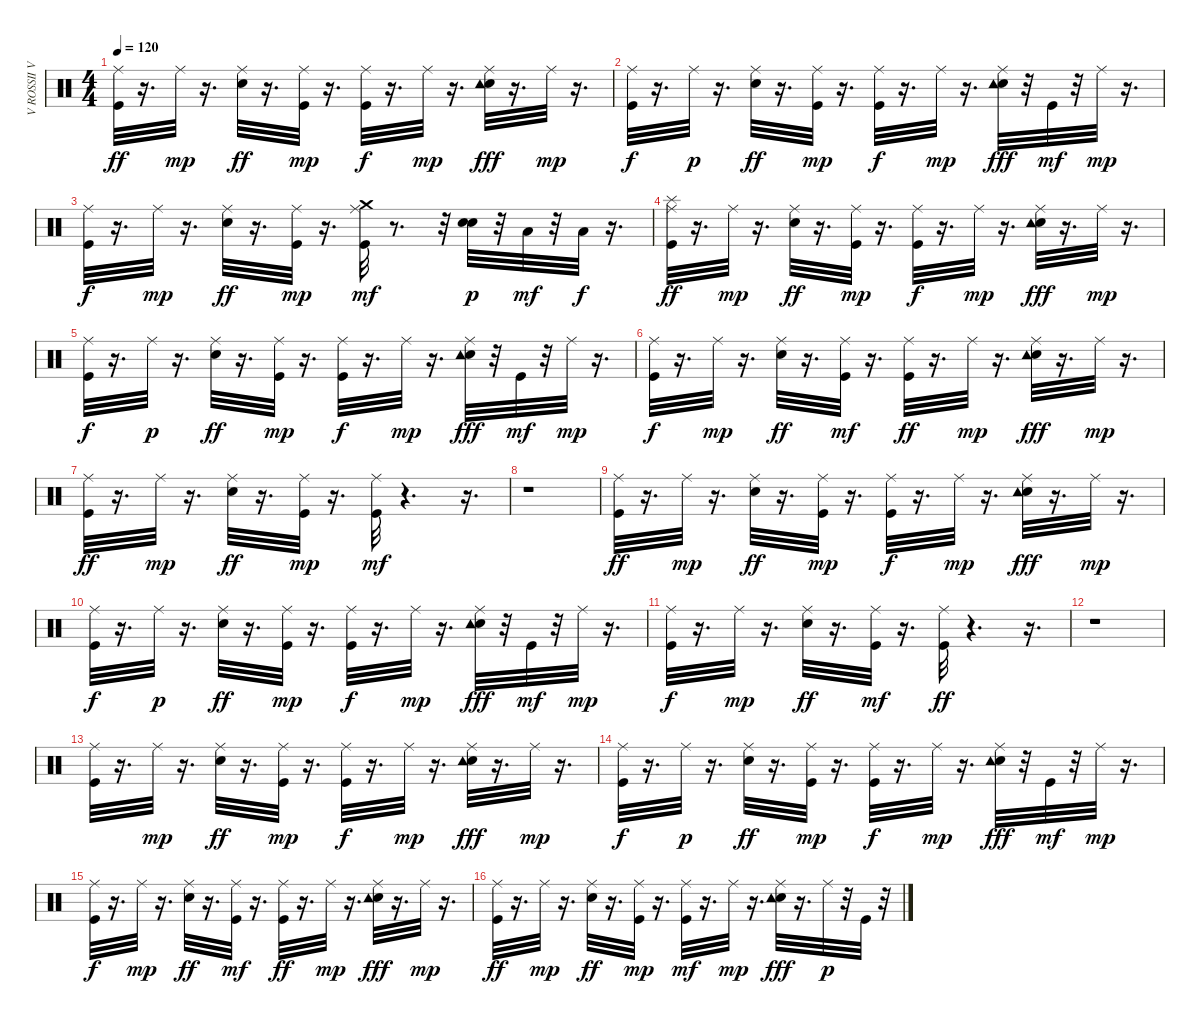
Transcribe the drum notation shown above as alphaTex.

\track ("V ROSSII VECHERA     " "V ROSSII V") {instrument percussion}
\staff {score}
\articulation defaults
\ts (4 4)
\tempo 120
\clef neutral
\ks c
("Ride (middle)" "Kick (hit)").32{dy ff} r.16{d} "Ride (middle)".32{dy mp} r.16{d} ("Snare (hit) 2" "Ride (middle)").32{dy ff} r.16{d} ("Kick (hit)" "Ride (middle)").32{dy mp} r.16{d} ("Kick (hit)" "Ride (middle)").32{dy f} r.16{d} "Ride (middle)".32{dy mp} r.16{d} ("Snare (hit) 2" "Ride (middle)" "Tambourine (hit)").32{dy fff} r.16{d} "Ride (middle)".32{dy mp} r.16{d} |
("Ride (middle)" "Kick (hit)").32{dy f} r.16{d} "Ride (middle)".32{dy p} r.16{d} ("Snare (hit) 2" "Ride (middle)").32{dy ff} r.16{d} ("Ride (middle)" "Kick (hit)").32{dy mp} r.16{d} ("Ride (middle)" "Kick (hit)").32{dy f} r.16{d} "Ride (middle)".32{dy mp} r.16{d} ("Snare (hit) 2" "Ride (middle)" "Tambourine (hit)").32{dy fff} r.32 "Kick (hit)".32{dy mf} r.32 "Ride (middle)".32{dy mp} r.16{d} |
("Kick (hit)" "Ride (middle)").32{dy f} r.16{d} "Ride (middle)".32{dy mp} r.16{d} ("Snare (hit) 2" "Ride (middle)").32{dy ff} r.16{d} ("Kick (hit)" "Ride (middle)").32{dy mp} r.16{d} ("Crash medium (hit)" "Kick (hit)" "Ride (middle)").32{dy mf} r.8{d} r.32 ("Snare (hit) 2" "Snare (hit) 2").32{dy p} r.32 "Low Tom (hit)".32{dy mf} r.32 "Low Floor Tom (hit)".32{dy f} r.16{d} |
("Splash (hit)" "Ride (middle)" "Kick (hit)").32{dy ff} r.16{d} "Ride (middle)".32{dy mp} r.16{d} ("Snare (hit) 2" "Ride (middle)").32{dy ff} r.16{d} ("Kick (hit)" "Ride (middle)").32{dy mp} r.16{d} ("Kick (hit)" "Ride (middle)").32{dy f} r.16{d} "Ride (middle)".32{dy mp} r.16{d} ("Snare (hit) 2" "Ride (middle)" "Tambourine (hit)").32{dy fff} r.16{d} "Ride (middle)".32{dy mp} r.16{d} |
("Ride (middle)" "Kick (hit)").32{dy f} r.16{d} "Ride (middle)".32{dy p} r.16{d} ("Snare (hit) 2" "Ride (middle)").32{dy ff} r.16{d} ("Ride (middle)" "Kick (hit)").32{dy mp} r.16{d} ("Ride (middle)" "Kick (hit)").32{dy f} r.16{d} "Ride (middle)".32{dy mp} r.16{d} ("Snare (hit) 2" "Ride (middle)" "Tambourine (hit)").32{dy fff} r.32 "Kick (hit)".32{dy mf} r.32 "Ride (middle)".32{dy mp} r.16{d} |
("Kick (hit)" "Ride (middle)").32{dy f} r.16{d} "Ride (middle)".32{dy mp} r.16{d} ("Snare (hit) 2" "Ride (middle)").32{dy ff} r.16{d} ("Ride (middle)" "Kick (hit)").32{dy mf} r.16{d} ("Ride (middle)" "Kick (hit)").32{dy ff} r.16{d} "Ride (middle)".32{dy mp} r.16{d} ("Snare (hit) 2" "Ride (middle)" "Tambourine (hit)").32{dy fff} r.16{d} "Ride (middle)".32{dy mp} r.16{d} |
("Kick (hit)" "Ride (middle)").32{dy ff} r.16{d} "Ride (middle)".32{dy mp} r.16{d} ("Snare (hit) 2" "Ride (middle)").32{dy ff} r.16{d} ("Kick (hit)" "Ride (middle)").32{dy mp} r.16{d} ("Kick (hit)" "Ride (middle)").32{dy mf} r.4{d} r.16{d} |
r.1 |
("Ride (middle)" "Kick (hit)").32{dy ff} r.16{d} "Ride (middle)".32{dy mp} r.16{d} ("Snare (hit) 2" "Ride (middle)").32{dy ff} r.16{d} ("Kick (hit)" "Ride (middle)").32{dy mp} r.16{d} ("Kick (hit)" "Ride (middle)").32{dy f} r.16{d} "Ride (middle)".32{dy mp} r.16{d} ("Snare (hit) 2" "Ride (middle)" "Tambourine (hit)").32{dy fff} r.16{d} "Ride (middle)".32{dy mp} r.16{d} |
("Ride (middle)" "Kick (hit)").32{dy f} r.16{d} "Ride (middle)".32{dy p} r.16{d} ("Snare (hit) 2" "Ride (middle)").32{dy ff} r.16{d} ("Ride (middle)" "Kick (hit)").32{dy mp} r.16{d} ("Ride (middle)" "Kick (hit)").32{dy f} r.16{d} "Ride (middle)".32{dy mp} r.16{d} ("Snare (hit) 2" "Ride (middle)" "Tambourine (hit)").32{dy fff} r.32 "Kick (hit)".32{dy mf} r.32 "Ride (middle)".32{dy mp} r.16{d} |
("Kick (hit)" "Ride (middle)").32{dy f} r.16{d} "Ride (middle)".32{dy mp} r.16{d} ("Snare (hit) 2" "Ride (middle)").32{dy ff} r.16{d} ("Ride (middle)" "Kick (hit)").32{dy mf} r.16{d} ("Ride (middle)" "Kick (hit)").32{dy ff} r.4{d} r.16{d} |
r.1 |
("Ride (middle)" "Kick (hit)").32 r.16{d} "Ride (middle)".32{dy mp} r.16{d} ("Snare (hit) 2" "Ride (middle)").32{dy ff} r.16{d} ("Kick (hit)" "Ride (middle)").32{dy mp} r.16{d} ("Kick (hit)" "Ride (middle)").32{dy f} r.16{d} "Ride (middle)".32{dy mp} r.16{d} ("Snare (hit) 2" "Ride (middle)" "Tambourine (hit)").32{dy fff} r.16{d} "Ride (middle)".32{dy mp} r.16{d} |
("Ride (middle)" "Kick (hit)").32{dy f} r.16{d} "Ride (middle)".32{dy p} r.16{d} ("Snare (hit) 2" "Ride (middle)").32{dy ff} r.16{d} ("Ride (middle)" "Kick (hit)").32{dy mp} r.16{d} ("Ride (middle)" "Kick (hit)").32{dy f} r.16{d} "Ride (middle)".32{dy mp} r.16{d} ("Snare (hit) 2" "Ride (middle)" "Tambourine (hit)").32{dy fff} r.32 "Kick (hit)".32{dy mf} r.32 "Ride (middle)".32{dy mp} r.16{d} |
("Kick (hit)" "Ride (middle)").32{dy f} r.16{d} "Ride (middle)".32{dy mp} r.16{d} ("Snare (hit) 2" "Ride (middle)").32{dy ff} r.16{d} ("Ride (middle)" "Kick (hit)").32{dy mf} r.16{d} ("Ride (middle)" "Kick (hit)").32{dy ff} r.16{d} "Ride (middle)".32{dy mp} r.16{d} ("Snare (hit) 2" "Ride (middle)" "Tambourine (hit)").32{dy fff} r.16{d} "Ride (middle)".32{dy mp} r.16{d} |
("Kick (hit)" "Ride (middle)").32{dy ff} r.16{d} "Ride (middle)".32{dy mp} r.16{d} ("Snare (hit) 2" "Ride (middle)").32{dy ff} r.16{d} ("Kick (hit)" "Ride (middle)").32{dy mp} r.16{d} ("Kick (hit)" "Ride (middle)").32{dy mf} r.16{d} "Ride (middle)".32{dy mp} r.16{d} ("Snare (hit) 2" "Ride (middle)" "Tambourine (hit)").32{dy fff} r.16{d} "Ride (middle)".32{dy p} r.32 "Kick (hit)".32 r.32
